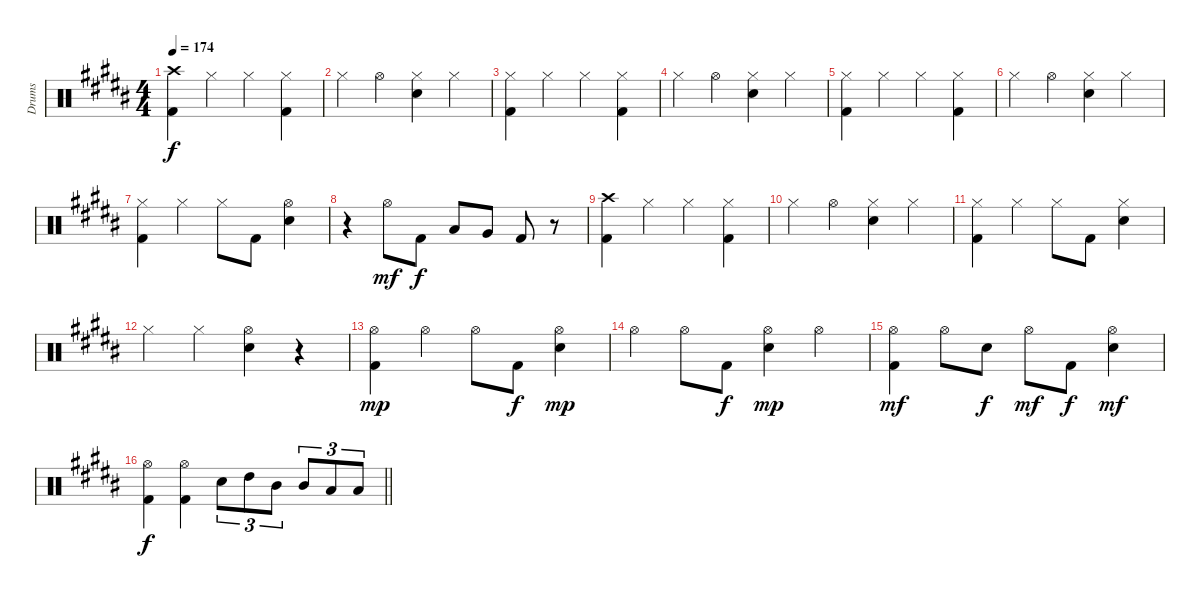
\track ("Drums" "Drums") {instrument percussion}
\staff {score}
\articulation defaults
\ts (4 4)
\tempo 174
\clef neutral
\ks g#minor
("Crash high (hit)" "Kick (hit) 2").4{dy f} "Hi-Hat (closed)".4 "Hi-Hat (closed)".4 ("Hi-Hat (closed)" "Kick (hit) 2").4 |
"Hi-Hat (closed)".4 "Hi-Hat (open)".4 ("Hi-Hat (closed)" "Electric Snare (hit)").4 "Hi-Hat (closed)".4 |
("Hi-Hat (closed)" "Kick (hit) 2").4 "Hi-Hat (closed)".4 "Hi-Hat (closed)".4 ("Hi-Hat (closed)" "Kick (hit) 2").4 |
"Hi-Hat (closed)".4 "Hi-Hat (open)".4 ("Hi-Hat (closed)" "Electric Snare (hit)").4 "Hi-Hat (closed)".4 |
("Hi-Hat (closed)" "Kick (hit) 2").4 "Hi-Hat (closed)".4 "Hi-Hat (closed)".4 ("Hi-Hat (closed)" "Kick (hit) 2").4 |
"Hi-Hat (closed)".4 "Hi-Hat (open)".4 ("Hi-Hat (closed)" "Electric Snare (hit)").4 "Hi-Hat (closed)".4 |
("Hi-Hat (closed)" "Kick (hit) 2").4 "Hi-Hat (closed)".4 "Hi-Hat (closed)".8 "Kick (hit) 2".8 ("Hi-Hat (open)" "Electric Snare (hit)").4 |
r.4 "Hi-Hat (open)".8{dy mf} "Kick (hit) 2".8{dy f} "Low Tom (hit)".8 "Very Low Tom (hit)".8 "Kick (hit) 2".8 r.8 |
("Crash high (hit)" "Kick (hit) 2").4 "Hi-Hat (closed)".4 "Hi-Hat (closed)".4 ("Hi-Hat (closed)" "Kick (hit) 2").4 |
"Hi-Hat (closed)".4 "Hi-Hat (open)".4 ("Hi-Hat (closed)" "Electric Snare (hit)").4 "Hi-Hat (closed)".4 |
("Hi-Hat (closed)" "Kick (hit) 2").4 "Hi-Hat (closed)".4 "Hi-Hat (closed)".8 "Kick (hit) 2".8 ("Hi-Hat (closed)" "Electric Snare (hit)").4 |
"Hi-Hat (closed)".4 "Hi-Hat (closed)".4 ("Hi-Hat (open)" "Electric Snare (hit)").4 r.4 |
("Hi-Hat (open)" "Kick (hit) 2").4{dy mp} "Hi-Hat (open)".4 "Hi-Hat (open)".8 "Kick (hit) 2".8{dy f} ("Hi-Hat (open)" "Electric Snare (hit)").4{dy mp} |
"Hi-Hat (open)".4 "Hi-Hat (open)".8 "Kick (hit) 2".8{dy f} ("Hi-Hat (open)" "Electric Snare (hit)").4{dy mp} "Hi-Hat (open)".4 |
("Hi-Hat (open)" "Kick (hit) 2").4{dy mf} "Hi-Hat (open)".8 "Electric Snare (hit)".8{dy f} "Hi-Hat (open)".8{dy mf} "Kick (hit) 2".8{dy f} ("Hi-Hat (open)" "Electric Snare (hit)").4{dy mf} |
\barLineRight lightlight
("Hi-Hat (open)" "Kick (hit) 2").4{dy f} ("Hi-Hat (open)" "Kick (hit) 2").4 "Electric Snare (hit)".8{tu (3 2)} "High Tom (hit)".8{tu (3 2)} "Mid Tom (hit)".8{tu (3 2)} "Mid Tom (hit)".8{tu (3 2)} "Low Tom (hit)".8{tu (3 2)} "Low Tom (hit)".8{tu (3 2)}
